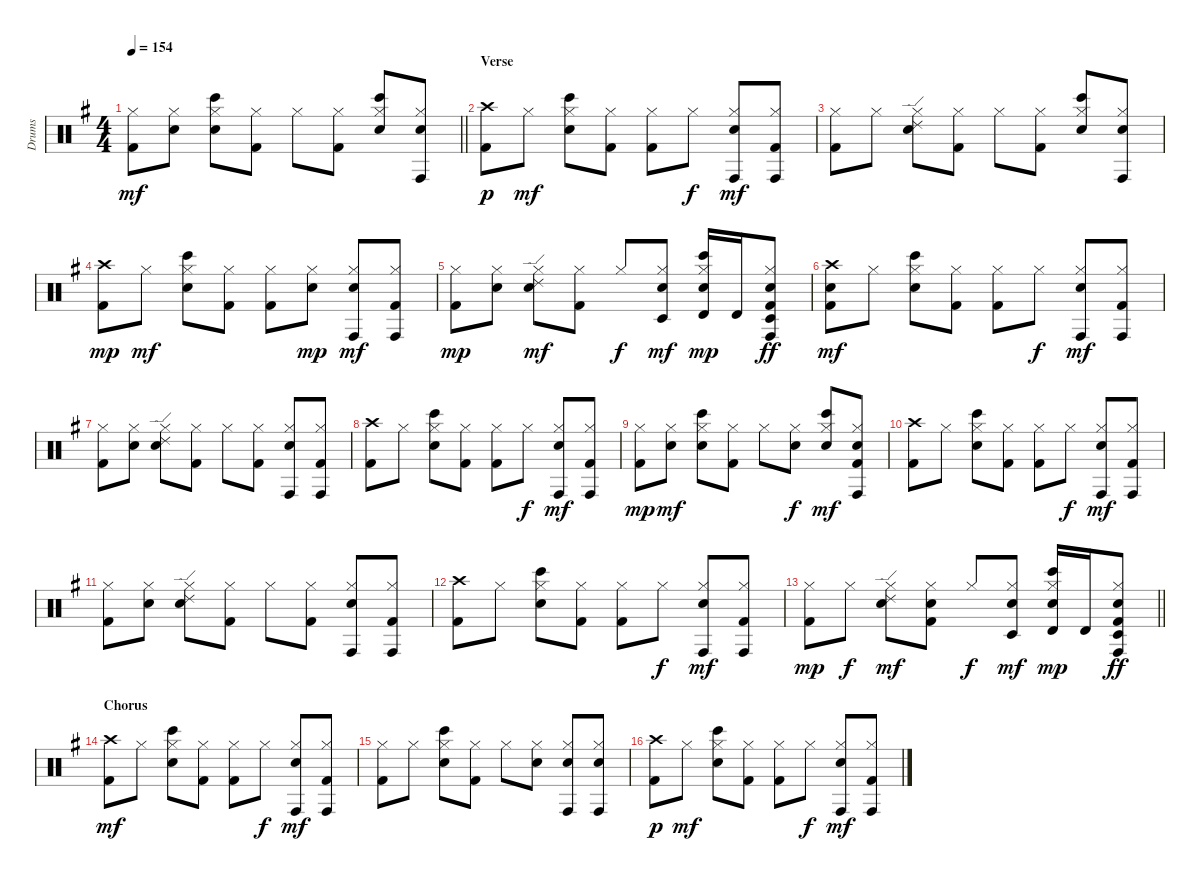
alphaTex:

\track ("Drums" "Drums") {instrument percussion}
\staff {score}
\articulation defaults
\ts (4 4)
\tempo 154
\clef neutral
\barLineRight lightlight
\ks g
("Kick (hit) 2" "Hi-Hat (closed)").8{dy mf} ("Electric Snare (hit)" "Hi-Hat (closed)").8 ("Electric Snare (hit)" "Hi-Hat (closed)" "Bongo High (hit)").8 ("Kick (hit) 2" "Hi-Hat (closed)").8 "Hi-Hat (closed)".8 ("Kick (hit) 2" "Hi-Hat (closed)").8 ("Electric Snare (hit)" "Hi-Hat (closed)" "Bongo High (hit)").8 ("Electric Snare (hit)" "Hi-Hat (closed)" "Conga high (hit)").8 |
\section ("" "Verse")
("Kick (hit) 2" "Crash high (hit)").8{dy p} "Hi-Hat (closed)".8{dy mf} ("Electric Snare (hit)" "Hi-Hat (closed)" "Bongo High (hit)").8 ("Kick (hit) 2" "Hi-Hat (closed)").8 ("Kick (hit) 2" "Hi-Hat (closed)").8 "Hi-Hat (closed)".8{dy f} ("Electric Snare (hit)" "Hi-Hat (closed)" "Conga high (hit)").8{dy mf} ("Kick (hit) 2" "Hi-Hat (closed)" "Conga high (hit)").8 |
("Kick (hit) 2" "Hi-Hat (closed)").8 "Hi-Hat (closed)".8 ("Electric Snare (hit)" "Hi-Hat (closed)" "Ride (edge) 2").8 ("Kick (hit) 2" "Hi-Hat (closed)").8 "Hi-Hat (closed)".8 ("Kick (hit) 2" "Hi-Hat (closed)").8 ("Electric Snare (hit)" "Hi-Hat (closed)" "Bongo High (hit)").8 ("Electric Snare (hit)" "Hi-Hat (closed)" "Conga high (hit)").8 |
("Kick (hit) 2" "Crash high (hit)").8{dy mp} "Hi-Hat (closed)".8{dy mf} ("Electric Snare (hit)" "Hi-Hat (closed)" "Bongo High (hit)").8 ("Kick (hit) 2" "Hi-Hat (closed)").8 ("Kick (hit) 2" "Hi-Hat (closed)").8 ("Electric Snare (hit)" "Hi-Hat (closed)").8{dy mp} ("Electric Snare (hit)" "Hi-Hat (closed)" "Conga high (hit)").8{dy mf} ("Kick (hit) 2" "Hi-Hat (closed)" "Conga high (hit)").8 |
("Kick (hit) 2" "Hi-Hat (closed)").8{dy mp} ("Electric Snare (hit)" "Hi-Hat (closed)").8 ("Electric Snare (hit)" "Hi-Hat (closed)" "Ride (edge) 2").8{dy mf} ("Kick (hit) 2" "Hi-Hat (closed)").8 "Hi-Hat (closed)".8{dy f} ("Electric Snare (hit)" "Hi-Hat (closed)" "Timbale low (hit)").8{dy mf} ("Electric Snare (hit)" "Hi-Hat (closed)" "Bongo High (hit)" "Timbale high (hit)").16{dy mp} "Timbale high (hit)".16 ("Kick (hit) 2" "Electric Snare (hit)" "Hi-Hat (closed)" "Conga high (hit)" "Timbale low (hit)").8{dy ff} |
("Kick (hit) 2" "Electric Snare (hit)" "Crash high (hit)").8{dy mf} "Hi-Hat (closed)".8 ("Electric Snare (hit)" "Hi-Hat (closed)" "Bongo High (hit)").8 ("Kick (hit) 2" "Hi-Hat (closed)").8 ("Kick (hit) 2" "Hi-Hat (closed)").8 "Hi-Hat (closed)".8{dy f} ("Electric Snare (hit)" "Hi-Hat (closed)" "Conga high (hit)").8{dy mf} ("Kick (hit) 2" "Hi-Hat (closed)" "Conga high (hit)").8 |
("Kick (hit) 2" "Hi-Hat (closed)").8 ("Electric Snare (hit)" "Hi-Hat (closed)").8 ("Electric Snare (hit)" "Hi-Hat (closed)" "Ride (edge) 2").8 ("Kick (hit) 2" "Hi-Hat (closed)").8 "Hi-Hat (closed)".8 ("Kick (hit) 2" "Hi-Hat (closed)").8 ("Electric Snare (hit)" "Hi-Hat (closed)" "Conga high (hit)").8 ("Kick (hit) 2" "Hi-Hat (closed)" "Conga high (hit)").8 |
("Kick (hit) 2" "Crash high (hit)").8 "Hi-Hat (closed)".8 ("Electric Snare (hit)" "Hi-Hat (closed)" "Bongo High (hit)").8 ("Kick (hit) 2" "Hi-Hat (closed)").8 ("Kick (hit) 2" "Hi-Hat (closed)").8 "Hi-Hat (closed)".8{dy f} ("Electric Snare (hit)" "Hi-Hat (closed)" "Conga high (hit)").8{dy mf} ("Kick (hit) 2" "Hi-Hat (closed)" "Conga high (hit)").8 |
("Kick (hit) 2" "Hi-Hat (closed)").8{dy mp} ("Electric Snare (hit)" "Hi-Hat (closed)").8{dy mf} ("Electric Snare (hit)" "Hi-Hat (closed)" "Bongo High (hit)").8 ("Kick (hit) 2" "Hi-Hat (closed)").8 "Hi-Hat (closed)".8 ("Electric Snare (hit)" "Hi-Hat (closed)").8{dy f} ("Electric Snare (hit)" "Hi-Hat (closed)" "Bongo High (hit)").8{dy mf} ("Kick (hit) 2" "Electric Snare (hit)" "Hi-Hat (closed)" "Conga high (hit)").8 |
("Kick (hit) 2" "Crash high (hit)").8 "Hi-Hat (closed)".8 ("Electric Snare (hit)" "Hi-Hat (closed)" "Bongo High (hit)").8 ("Kick (hit) 2" "Hi-Hat (closed)").8 ("Kick (hit) 2" "Hi-Hat (closed)").8 "Hi-Hat (closed)".8{dy f} ("Electric Snare (hit)" "Hi-Hat (closed)" "Conga high (hit)").8{dy mf} ("Kick (hit) 2" "Hi-Hat (closed)" "Conga high (hit)").8 |
("Kick (hit) 2" "Hi-Hat (closed)").8 ("Electric Snare (hit)" "Hi-Hat (closed)").8 ("Electric Snare (hit)" "Hi-Hat (closed)" "Ride (edge) 2").8 ("Kick (hit) 2" "Hi-Hat (closed)").8 "Hi-Hat (closed)".8 ("Kick (hit) 2" "Hi-Hat (closed)").8 ("Electric Snare (hit)" "Hi-Hat (closed)" "Conga high (hit)").8 ("Kick (hit) 2" "Hi-Hat (closed)" "Conga high (hit)").8 |
("Kick (hit) 2" "Crash high (hit)").8 "Hi-Hat (closed)".8 ("Electric Snare (hit)" "Hi-Hat (closed)" "Bongo High (hit)").8 ("Kick (hit) 2" "Hi-Hat (closed)").8 ("Kick (hit) 2" "Hi-Hat (closed)").8 "Hi-Hat (closed)".8{dy f} ("Electric Snare (hit)" "Hi-Hat (closed)" "Conga high (hit)").8{dy mf} ("Kick (hit) 2" "Hi-Hat (closed)" "Conga high (hit)").8 |
\barLineRight lightlight
("Kick (hit) 2" "Hi-Hat (closed)").8{dy mp} "Hi-Hat (closed)".8{dy f} ("Electric Snare (hit)" "Hi-Hat (closed)" "Ride (edge) 2").8{dy mf} ("Kick (hit) 2" "Electric Snare (hit)" "Hi-Hat (closed)").8 "Hi-Hat (closed)".8{dy f} ("Electric Snare (hit)" "Hi-Hat (closed)" "Timbale low (hit)").8{dy mf} ("Electric Snare (hit)" "Hi-Hat (closed)" "Bongo High (hit)" "Timbale high (hit)").16{dy mp} "Timbale high (hit)".16 ("Kick (hit) 2" "Electric Snare (hit)" "Hi-Hat (closed)" "Conga high (hit)" "Timbale low (hit)").8{dy ff} |
\section ("" "Chorus")
("Kick (hit) 2" "Crash high (hit)").8{dy mf} "Hi-Hat (closed)".8 ("Electric Snare (hit)" "Hi-Hat (closed)" "Bongo High (hit)").8 ("Kick (hit) 2" "Hi-Hat (closed)").8 ("Kick (hit) 2" "Hi-Hat (closed)").8 "Hi-Hat (closed)".8{dy f} ("Electric Snare (hit)" "Hi-Hat (closed)" "Conga high (hit)").8{dy mf} ("Kick (hit) 2" "Hi-Hat (closed)" "Conga high (hit)").8 |
("Kick (hit) 2" "Hi-Hat (closed)").8 "Hi-Hat (closed)".8 ("Electric Snare (hit)" "Hi-Hat (closed)" "Bongo High (hit)").8 ("Kick (hit) 2" "Hi-Hat (closed)").8 "Hi-Hat (closed)".8 ("Electric Snare (hit)" "Hi-Hat (closed)").8 ("Electric Snare (hit)" "Hi-Hat (closed)" "Conga high (hit)").8 ("Electric Snare (hit)" "Hi-Hat (closed)" "Conga high (hit)").8 |
("Kick (hit) 2" "Crash high (hit)").8{dy p} "Hi-Hat (closed)".8{dy mf} ("Electric Snare (hit)" "Hi-Hat (closed)" "Bongo High (hit)").8 ("Kick (hit) 2" "Hi-Hat (closed)").8 ("Kick (hit) 2" "Hi-Hat (closed)").8 "Hi-Hat (closed)".8{dy f} ("Electric Snare (hit)" "Hi-Hat (closed)" "Conga high (hit)").8{dy mf} ("Kick (hit) 2" "Hi-Hat (closed)" "Conga high (hit)").8
